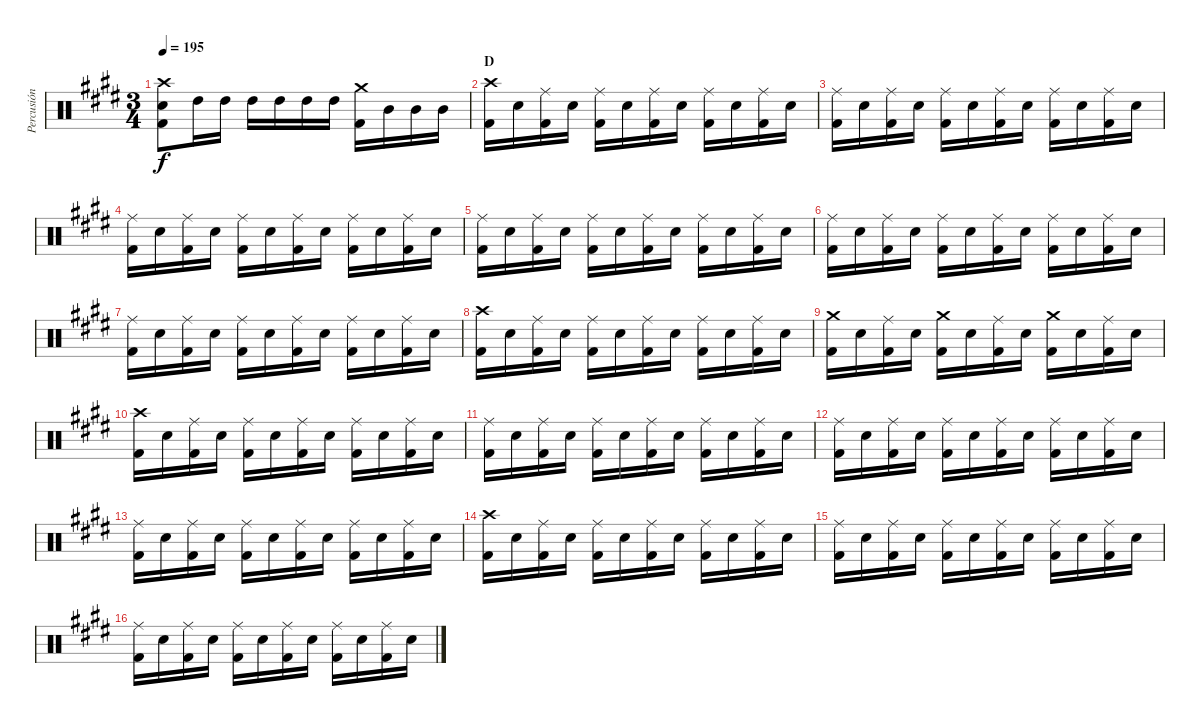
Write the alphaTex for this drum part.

\track ("Percusión" "Percusión") {instrument percussion}
\staff {score}
\articulation defaults
\ts (3 4)
\tempo 195
\clef neutral
\ks e
("Crash high (hit)" "Electric Snare (hit)" "Kick (hit) 2").8{dy f} "High Tom (hit)".16 "High Tom (hit)".16 "High Tom (hit)".16 "High Tom (hit)".16 "High Tom (hit)".16 "High Tom (hit)".16 ("Crash medium (hit)" "Kick (hit) 2").16 "Mid Tom (hit)".16 "Mid Tom (hit)".16 "Mid Tom (hit)".16 |
\section ("" "D")
("Crash high (hit)" "Kick (hit) 2").16 "Electric Snare (hit)".16 ("Ride (middle)" "Kick (hit) 2").16 "Electric Snare (hit)".16 ("Ride (middle)" "Kick (hit) 2").16 "Electric Snare (hit)".16 ("Ride (middle)" "Kick (hit) 2").16 "Electric Snare (hit)".16 ("Ride (middle)" "Kick (hit) 2").16 "Electric Snare (hit)".16 ("Ride (middle)" "Kick (hit) 2").16 "Electric Snare (hit)".16 |
("Ride (middle)" "Kick (hit) 2").16 "Electric Snare (hit)".16 ("Ride (middle)" "Kick (hit) 2").16 "Electric Snare (hit)".16 ("Ride (middle)" "Kick (hit) 2").16 "Electric Snare (hit)".16 ("Ride (middle)" "Kick (hit) 2").16 "Electric Snare (hit)".16 ("Ride (middle)" "Kick (hit) 2").16 "Electric Snare (hit)".16 ("Ride (middle)" "Kick (hit) 2").16 "Electric Snare (hit)".16 |
("Ride (middle)" "Kick (hit) 2").16 "Electric Snare (hit)".16 ("Ride (middle)" "Kick (hit) 2").16 "Electric Snare (hit)".16 ("Ride (middle)" "Kick (hit) 2").16 "Electric Snare (hit)".16 ("Ride (middle)" "Kick (hit) 2").16 "Electric Snare (hit)".16 ("Ride (middle)" "Kick (hit) 2").16 "Electric Snare (hit)".16 ("Ride (middle)" "Kick (hit) 2").16 "Electric Snare (hit)".16 |
("Ride (middle)" "Kick (hit) 2").16 "Electric Snare (hit)".16 ("Ride (middle)" "Kick (hit) 2").16 "Electric Snare (hit)".16 ("Ride (middle)" "Kick (hit) 2").16 "Electric Snare (hit)".16 ("Ride (middle)" "Kick (hit) 2").16 "Electric Snare (hit)".16 ("Ride (middle)" "Kick (hit) 2").16 "Electric Snare (hit)".16 ("Ride (middle)" "Kick (hit) 2").16 "Electric Snare (hit)".16 |
("Ride (middle)" "Kick (hit) 2").16 "Electric Snare (hit)".16 ("Ride (middle)" "Kick (hit) 2").16 "Electric Snare (hit)".16 ("Ride (middle)" "Kick (hit) 2").16 "Electric Snare (hit)".16 ("Ride (middle)" "Kick (hit) 2").16 "Electric Snare (hit)".16 ("Ride (middle)" "Kick (hit) 2").16 "Electric Snare (hit)".16 ("Ride (middle)" "Kick (hit) 2").16 "Electric Snare (hit)".16 |
("Ride (middle)" "Kick (hit) 2").16 "Electric Snare (hit)".16 ("Ride (middle)" "Kick (hit) 2").16 "Electric Snare (hit)".16 ("Ride (middle)" "Kick (hit) 2").16 "Electric Snare (hit)".16 ("Ride (middle)" "Kick (hit) 2").16 "Electric Snare (hit)".16 ("Ride (middle)" "Kick (hit) 2").16 "Electric Snare (hit)".16 ("Ride (middle)" "Kick (hit) 2").16 "Electric Snare (hit)".16 |
("Crash high (hit)" "Kick (hit) 2").16 "Electric Snare (hit)".16 ("Ride (middle)" "Kick (hit) 2").16 "Electric Snare (hit)".16 ("Ride (middle)" "Kick (hit) 2").16 "Electric Snare (hit)".16 ("Ride (middle)" "Kick (hit) 2").16 "Electric Snare (hit)".16 ("Ride (middle)" "Kick (hit) 2").16 "Electric Snare (hit)".16 ("Ride (middle)" "Kick (hit) 2").16 "Electric Snare (hit)".16 |
("Crash medium (hit)" "Kick (hit) 2").16 "Electric Snare (hit)".16 ("Ride (middle)" "Kick (hit) 2").16 "Electric Snare (hit)".16 ("Crash medium (hit)" "Kick (hit) 2").16 "Electric Snare (hit)".16 ("Ride (middle)" "Kick (hit) 2").16 "Electric Snare (hit)".16 ("Crash medium (hit)" "Kick (hit) 2").16 "Electric Snare (hit)".16 ("Ride (middle)" "Kick (hit) 2").16 "Electric Snare (hit)".16 |
("Crash high (hit)" "Kick (hit) 2").16 "Electric Snare (hit)".16 ("Ride (middle)" "Kick (hit) 2").16 "Electric Snare (hit)".16 ("Ride (middle)" "Kick (hit) 2").16 "Electric Snare (hit)".16 ("Ride (middle)" "Kick (hit) 2").16 "Electric Snare (hit)".16 ("Ride (middle)" "Kick (hit) 2").16 "Electric Snare (hit)".16 ("Ride (middle)" "Kick (hit) 2").16 "Electric Snare (hit)".16 |
("Ride (middle)" "Kick (hit) 2").16 "Electric Snare (hit)".16 ("Ride (middle)" "Kick (hit) 2").16 "Electric Snare (hit)".16 ("Ride (middle)" "Kick (hit) 2").16 "Electric Snare (hit)".16 ("Ride (middle)" "Kick (hit) 2").16 "Electric Snare (hit)".16 ("Ride (middle)" "Kick (hit) 2").16 "Electric Snare (hit)".16 ("Ride (middle)" "Kick (hit) 2").16 "Electric Snare (hit)".16 |
("Ride (middle)" "Kick (hit) 2").16 "Electric Snare (hit)".16 ("Ride (middle)" "Kick (hit) 2").16 "Electric Snare (hit)".16 ("Ride (middle)" "Kick (hit) 2").16 "Electric Snare (hit)".16 ("Ride (middle)" "Kick (hit) 2").16 "Electric Snare (hit)".16 ("Ride (middle)" "Kick (hit) 2").16 "Electric Snare (hit)".16 ("Ride (middle)" "Kick (hit) 2").16 "Electric Snare (hit)".16 |
("Ride (middle)" "Kick (hit) 2").16 "Electric Snare (hit)".16 ("Ride (middle)" "Kick (hit) 2").16 "Electric Snare (hit)".16 ("Ride (middle)" "Kick (hit) 2").16 "Electric Snare (hit)".16 ("Ride (middle)" "Kick (hit) 2").16 "Electric Snare (hit)".16 ("Ride (middle)" "Kick (hit) 2").16 "Electric Snare (hit)".16 ("Ride (middle)" "Kick (hit) 2").16 "Electric Snare (hit)".16 |
("Crash high (hit)" "Kick (hit) 2").16 "Electric Snare (hit)".16 ("Ride (middle)" "Kick (hit) 2").16 "Electric Snare (hit)".16 ("Ride (middle)" "Kick (hit) 2").16 "Electric Snare (hit)".16 ("Ride (middle)" "Kick (hit) 2").16 "Electric Snare (hit)".16 ("Ride (middle)" "Kick (hit) 2").16 "Electric Snare (hit)".16 ("Ride (middle)" "Kick (hit) 2").16 "Electric Snare (hit)".16 |
("Ride (middle)" "Kick (hit) 2").16 "Electric Snare (hit)".16 ("Ride (middle)" "Kick (hit) 2").16 "Electric Snare (hit)".16 ("Ride (middle)" "Kick (hit) 2").16 "Electric Snare (hit)".16 ("Ride (middle)" "Kick (hit) 2").16 "Electric Snare (hit)".16 ("Ride (middle)" "Kick (hit) 2").16 "Electric Snare (hit)".16 ("Ride (middle)" "Kick (hit) 2").16 "Electric Snare (hit)".16 |
("Ride (middle)" "Kick (hit) 2").16 "Electric Snare (hit)".16 ("Ride (middle)" "Kick (hit) 2").16 "Electric Snare (hit)".16 ("Ride (middle)" "Kick (hit) 2").16 "Electric Snare (hit)".16 ("Ride (middle)" "Kick (hit) 2").16 "Electric Snare (hit)".16 ("Ride (middle)" "Kick (hit) 2").16 "Electric Snare (hit)".16 ("Ride (middle)" "Kick (hit) 2").16 "Electric Snare (hit)".16
